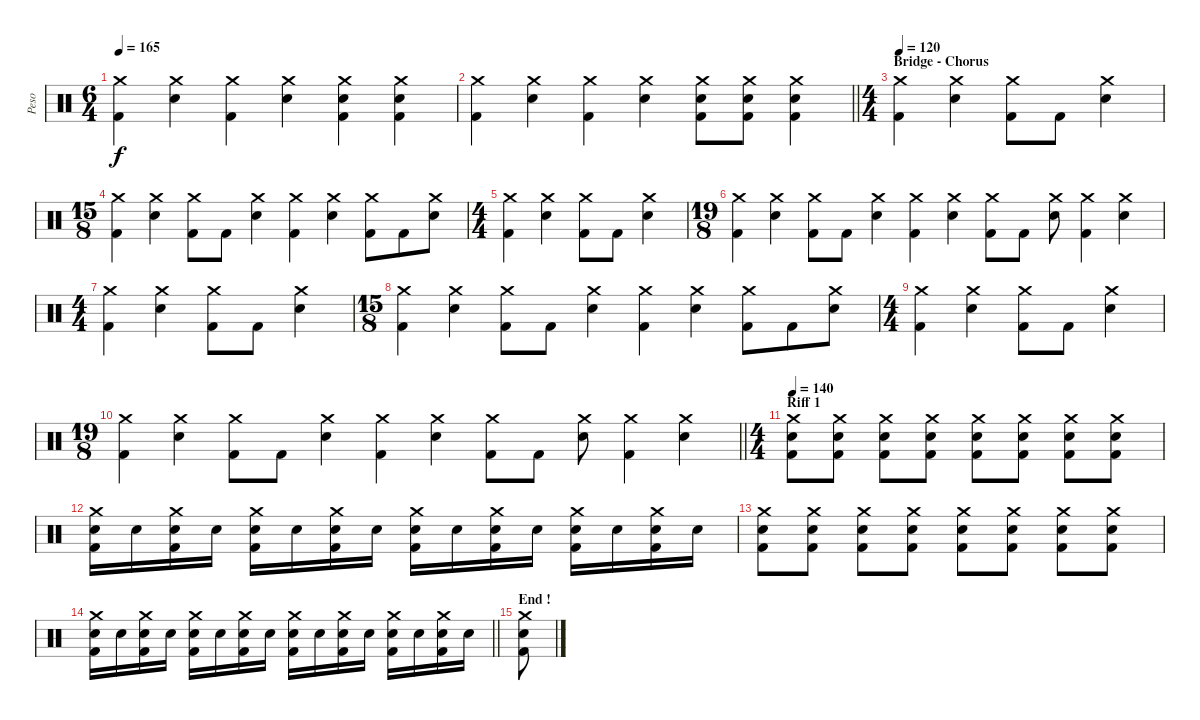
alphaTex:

\track ("Peso" "Peso") {instrument percussion}
\staff {score}
\articulation defaults
\ts (6 4)
\tempo 165
\clef neutral
\ks c
("Crash medium (hit)" "Kick (hit) 2").4{dy f} ("Crash medium (hit)" "Electric Snare (hit)").4 ("Crash medium (hit)" "Kick (hit) 2").4 ("Crash medium (hit)" "Electric Snare (hit)").4 ("Crash medium (hit)" "Electric Snare (hit)" "Kick (hit) 2").4 ("Crash medium (hit)" "Electric Snare (hit)" "Kick (hit) 2").4 |
\barLineRight lightlight
("Crash medium (hit)" "Kick (hit) 2").4 ("Crash medium (hit)" "Electric Snare (hit)").4 ("Crash medium (hit)" "Kick (hit) 2").4 ("Crash medium (hit)" "Electric Snare (hit)").4 ("Crash medium (hit)" "Electric Snare (hit)" "Kick (hit) 2").8 ("Crash medium (hit)" "Electric Snare (hit)" "Kick (hit) 2").8 ("Crash medium (hit)" "Electric Snare (hit)" "Kick (hit) 2").4 |
\ts (4 4)
\section ("" "Bridge - Chorus")
\tempo 120
("Crash medium (hit)" "Kick (hit) 2").4 ("Crash medium (hit)" "Electric Snare (hit)").4 ("Crash medium (hit)" "Kick (hit) 2").8 "Kick (hit) 2".8 ("Crash medium (hit)" "Electric Snare (hit)").4 |
\ts (15 8)
("Crash medium (hit)" "Kick (hit) 2").4 ("Crash medium (hit)" "Electric Snare (hit)").4 ("Crash medium (hit)" "Kick (hit) 2").8 "Kick (hit) 2".8 ("Crash medium (hit)" "Electric Snare (hit)").4 ("Crash medium (hit)" "Kick (hit) 2").4 ("Crash medium (hit)" "Electric Snare (hit)").4 ("Crash medium (hit)" "Kick (hit) 2").8 "Kick (hit) 2".8 ("Crash medium (hit)" "Electric Snare (hit)").8 |
\ts (4 4)
("Crash medium (hit)" "Kick (hit) 2").4 ("Crash medium (hit)" "Electric Snare (hit)").4 ("Crash medium (hit)" "Kick (hit) 2").8 "Kick (hit) 2".8 ("Crash medium (hit)" "Electric Snare (hit)").4 |
\ts (19 8)
("Crash medium (hit)" "Kick (hit) 2").4 ("Crash medium (hit)" "Electric Snare (hit)").4 ("Crash medium (hit)" "Kick (hit) 2").8 "Kick (hit) 2".8 ("Crash medium (hit)" "Electric Snare (hit)").4 ("Crash medium (hit)" "Kick (hit) 2").4 ("Crash medium (hit)" "Electric Snare (hit)").4 ("Crash medium (hit)" "Kick (hit) 2").8 "Kick (hit) 2".8 ("Crash medium (hit)" "Electric Snare (hit)").8 ("Crash medium (hit)" "Kick (hit) 2").4 ("Crash medium (hit)" "Electric Snare (hit)").4 |
\ts (4 4)
("Crash medium (hit)" "Kick (hit) 2").4 ("Crash medium (hit)" "Electric Snare (hit)").4 ("Crash medium (hit)" "Kick (hit) 2").8 "Kick (hit) 2".8 ("Crash medium (hit)" "Electric Snare (hit)").4 |
\ts (15 8)
("Crash medium (hit)" "Kick (hit) 2").4 ("Crash medium (hit)" "Electric Snare (hit)").4 ("Crash medium (hit)" "Kick (hit) 2").8 "Kick (hit) 2".8 ("Crash medium (hit)" "Electric Snare (hit)").4 ("Crash medium (hit)" "Kick (hit) 2").4 ("Crash medium (hit)" "Electric Snare (hit)").4 ("Crash medium (hit)" "Kick (hit) 2").8 "Kick (hit) 2".8 ("Crash medium (hit)" "Electric Snare (hit)").8 |
\ts (4 4)
("Crash medium (hit)" "Kick (hit) 2").4 ("Crash medium (hit)" "Electric Snare (hit)").4 ("Crash medium (hit)" "Kick (hit) 2").8 "Kick (hit) 2".8 ("Crash medium (hit)" "Electric Snare (hit)").4 |
\ts (19 8)
\barLineRight lightlight
("Crash medium (hit)" "Kick (hit) 2").4 ("Crash medium (hit)" "Electric Snare (hit)").4 ("Crash medium (hit)" "Kick (hit) 2").8 "Kick (hit) 2".8 ("Crash medium (hit)" "Electric Snare (hit)").4 ("Crash medium (hit)" "Kick (hit) 2").4 ("Crash medium (hit)" "Electric Snare (hit)").4 ("Crash medium (hit)" "Kick (hit) 2").8 "Kick (hit) 2".8 ("Crash medium (hit)" "Electric Snare (hit)").8 ("Crash medium (hit)" "Kick (hit) 2").4 ("Crash medium (hit)" "Electric Snare (hit)").4 |
\ts (4 4)
\section ("" "Riff 1")
\tempo 140
("Crash medium (hit)" "Electric Snare (hit)" "Kick (hit) 2").8 ("Crash medium (hit)" "Electric Snare (hit)" "Kick (hit) 2").8 ("Crash medium (hit)" "Electric Snare (hit)" "Kick (hit) 2").8 ("Crash medium (hit)" "Electric Snare (hit)" "Kick (hit) 2").8 ("Crash medium (hit)" "Electric Snare (hit)" "Kick (hit) 2").8 ("Crash medium (hit)" "Electric Snare (hit)" "Kick (hit) 2").8 ("Crash medium (hit)" "Electric Snare (hit)" "Kick (hit) 2").8 ("Crash medium (hit)" "Electric Snare (hit)" "Kick (hit) 2").8 |
("Crash medium (hit)" "Electric Snare (hit)" "Kick (hit) 2").16 "Electric Snare (hit)".16 ("Crash medium (hit)" "Electric Snare (hit)" "Kick (hit) 2").16 "Electric Snare (hit)".16 ("Crash medium (hit)" "Electric Snare (hit)" "Kick (hit) 2").16 "Electric Snare (hit)".16 ("Crash medium (hit)" "Electric Snare (hit)" "Kick (hit) 2").16 "Electric Snare (hit)".16 ("Crash medium (hit)" "Electric Snare (hit)" "Kick (hit) 2").16 "Electric Snare (hit)".16 ("Crash medium (hit)" "Electric Snare (hit)" "Kick (hit) 2").16 "Electric Snare (hit)".16 ("Crash medium (hit)" "Electric Snare (hit)" "Kick (hit) 2").16 "Electric Snare (hit)".16 ("Crash medium (hit)" "Electric Snare (hit)" "Kick (hit) 2").16 "Electric Snare (hit)".16 |
("Crash medium (hit)" "Electric Snare (hit)" "Kick (hit) 2").8 ("Crash medium (hit)" "Electric Snare (hit)" "Kick (hit) 2").8 ("Crash medium (hit)" "Electric Snare (hit)" "Kick (hit) 2").8 ("Crash medium (hit)" "Electric Snare (hit)" "Kick (hit) 2").8 ("Crash medium (hit)" "Electric Snare (hit)" "Kick (hit) 2").8 ("Crash medium (hit)" "Electric Snare (hit)" "Kick (hit) 2").8 ("Crash medium (hit)" "Electric Snare (hit)" "Kick (hit) 2").8 ("Crash medium (hit)" "Electric Snare (hit)" "Kick (hit) 2").8 |
\barLineRight lightlight
("Crash medium (hit)" "Electric Snare (hit)" "Kick (hit) 2").16 "Electric Snare (hit)".16 ("Crash medium (hit)" "Electric Snare (hit)" "Kick (hit) 2").16 "Electric Snare (hit)".16 ("Crash medium (hit)" "Electric Snare (hit)" "Kick (hit) 2").16 "Electric Snare (hit)".16 ("Crash medium (hit)" "Electric Snare (hit)" "Kick (hit) 2").16 "Electric Snare (hit)".16 ("Crash medium (hit)" "Electric Snare (hit)" "Kick (hit) 2").16 "Electric Snare (hit)".16 ("Crash medium (hit)" "Electric Snare (hit)" "Kick (hit) 2").16 "Electric Snare (hit)".16 ("Crash medium (hit)" "Electric Snare (hit)" "Kick (hit) 2").16 "Electric Snare (hit)".16 ("Crash medium (hit)" "Electric Snare (hit)" "Kick (hit) 2").16 "Electric Snare (hit)".16 |
\section ("" "End !")
("Crash medium (hit)" "Electric Snare (hit)" "Kick (hit) 2").8
